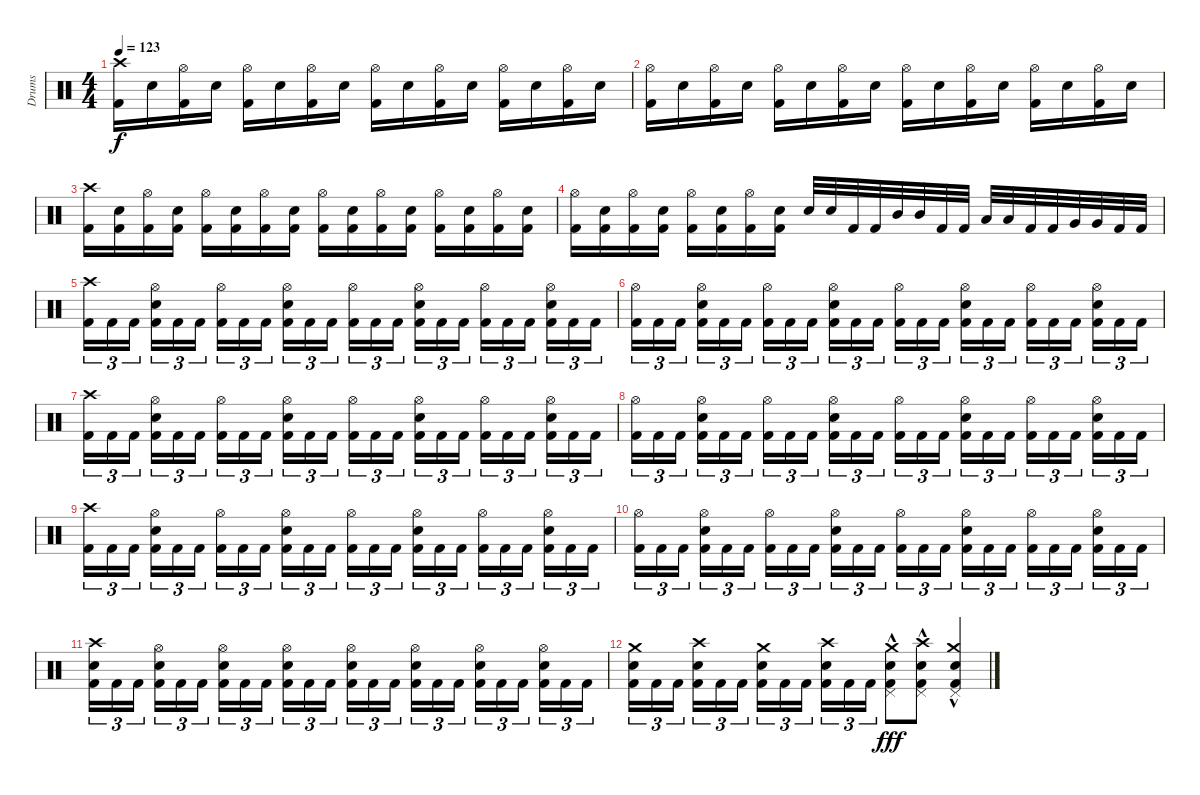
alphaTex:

\track ("Drums" "Drums") {instrument percussion}
\staff {score}
\articulation defaults
\ts (4 4)
\tempo 123
\clef neutral
\ks c
("Crash high (hit)" "Kick (hit) 2").16{dy f} "Snare (hit) 2".16 ("Hi-Hat (open)" "Kick (hit) 2").16 "Snare (hit) 2".16 ("Hi-Hat (open)" "Kick (hit) 2").16 "Snare (hit) 2".16 ("Hi-Hat (open)" "Kick (hit) 2").16 "Snare (hit) 2".16 ("Hi-Hat (open)" "Kick (hit) 2").16 "Snare (hit) 2".16 ("Hi-Hat (open)" "Kick (hit) 2").16 "Snare (hit) 2".16 ("Hi-Hat (open)" "Kick (hit) 2").16 "Snare (hit) 2".16 ("Hi-Hat (open)" "Kick (hit) 2").16 "Snare (hit) 2".16 |
("Hi-Hat (open)" "Kick (hit) 2").16 "Snare (hit) 2".16 ("Hi-Hat (open)" "Kick (hit) 2").16 "Snare (hit) 2".16 ("Hi-Hat (open)" "Kick (hit) 2").16 "Snare (hit) 2".16 ("Hi-Hat (open)" "Kick (hit) 2").16 "Snare (hit) 2".16 ("Hi-Hat (open)" "Kick (hit) 2").16 "Snare (hit) 2".16 ("Hi-Hat (open)" "Kick (hit) 2").16 "Snare (hit) 2".16 ("Hi-Hat (open)" "Kick (hit) 2").16 "Snare (hit) 2".16 ("Hi-Hat (open)" "Kick (hit) 2").16 "Snare (hit) 2".16 |
("Crash high (hit)" "Kick (hit) 2").16 ("Snare (hit) 2" "Kick (hit) 2").16 ("Hi-Hat (open)" "Kick (hit) 2").16 ("Snare (hit) 2" "Kick (hit) 2").16 ("Hi-Hat (open)" "Kick (hit) 2").16 ("Snare (hit) 2" "Kick (hit) 2").16 ("Hi-Hat (open)" "Kick (hit) 2").16 ("Snare (hit) 2" "Kick (hit) 2").16 ("Hi-Hat (open)" "Kick (hit) 2").16 ("Snare (hit) 2" "Kick (hit) 2").16 ("Hi-Hat (open)" "Kick (hit) 2").16 ("Snare (hit) 2" "Kick (hit) 2").16 ("Hi-Hat (open)" "Kick (hit) 2").16 ("Snare (hit) 2" "Kick (hit) 2").16 ("Hi-Hat (open)" "Kick (hit) 2").16 ("Snare (hit) 2" "Kick (hit) 2").16 |
("Hi-Hat (open)" "Kick (hit) 2").16 ("Snare (hit) 2" "Kick (hit) 2").16 ("Hi-Hat (open)" "Kick (hit) 2").16 ("Snare (hit) 2" "Kick (hit) 2").16 ("Hi-Hat (open)" "Kick (hit) 2").16 ("Snare (hit) 2" "Kick (hit) 2").16 ("Hi-Hat (open)" "Kick (hit) 2").16 ("Snare (hit) 2" "Kick (hit) 2").16 "Snare (hit) 2".32 "Snare (hit) 2".32 "Kick (hit) 2".32 "Kick (hit) 2".32 "Mid Tom (hit)".32 "Mid Tom (hit)".32 "Kick (hit) 2".32 "Kick (hit) 2".32 "Low Tom (hit)".32 "Low Tom (hit)".32 "Kick (hit) 2".32 "Kick (hit) 2".32 "Very Low Tom (hit)".32 "Very Low Tom (hit)".32 "Kick (hit) 2".32 "Kick (hit) 2".32 |
("Crash high (hit)" "Kick (hit) 2").16{tu (3 2)} "Kick (hit) 2".16{tu (3 2)} "Kick (hit) 2".16{tu (3 2) beam splitsecondary} ("Hi-Hat (open)" "Snare (hit) 2" "Kick (hit) 2").16{tu (3 2)} "Kick (hit) 2".16{tu (3 2)} "Kick (hit) 2".16{tu (3 2)} ("Hi-Hat (open)" "Kick (hit) 2").16{tu (3 2)} "Kick (hit) 2".16{tu (3 2)} "Kick (hit) 2".16{tu (3 2) beam splitsecondary} ("Hi-Hat (open)" "Snare (hit) 2" "Kick (hit) 2").16{tu (3 2)} "Kick (hit) 2".16{tu (3 2)} "Kick (hit) 2".16{tu (3 2)} ("Hi-Hat (open)" "Kick (hit) 2").16{tu (3 2)} "Kick (hit) 2".16{tu (3 2)} "Kick (hit) 2".16{tu (3 2) beam splitsecondary} ("Hi-Hat (open)" "Snare (hit) 2" "Kick (hit) 2").16{tu (3 2)} "Kick (hit) 2".16{tu (3 2)} "Kick (hit) 2".16{tu (3 2)} ("Hi-Hat (open)" "Kick (hit) 2").16{tu (3 2)} "Kick (hit) 2".16{tu (3 2)} "Kick (hit) 2".16{tu (3 2) beam splitsecondary} ("Hi-Hat (open)" "Snare (hit) 2" "Kick (hit) 2").16{tu (3 2)} "Kick (hit) 2".16{tu (3 2)} "Kick (hit) 2".16{tu (3 2)} |
("Hi-Hat (open)" "Kick (hit) 2").16{tu (3 2)} "Kick (hit) 2".16{tu (3 2)} "Kick (hit) 2".16{tu (3 2) beam splitsecondary} ("Hi-Hat (open)" "Snare (hit) 2" "Kick (hit) 2").16{tu (3 2)} "Kick (hit) 2".16{tu (3 2)} "Kick (hit) 2".16{tu (3 2)} ("Hi-Hat (open)" "Kick (hit) 2").16{tu (3 2)} "Kick (hit) 2".16{tu (3 2)} "Kick (hit) 2".16{tu (3 2) beam splitsecondary} ("Hi-Hat (open)" "Snare (hit) 2" "Kick (hit) 2").16{tu (3 2)} "Kick (hit) 2".16{tu (3 2)} "Kick (hit) 2".16{tu (3 2)} ("Hi-Hat (open)" "Kick (hit) 2").16{tu (3 2)} "Kick (hit) 2".16{tu (3 2)} "Kick (hit) 2".16{tu (3 2) beam splitsecondary} ("Hi-Hat (open)" "Snare (hit) 2" "Kick (hit) 2").16{tu (3 2)} "Kick (hit) 2".16{tu (3 2)} "Kick (hit) 2".16{tu (3 2)} ("Hi-Hat (open)" "Kick (hit) 2").16{tu (3 2)} "Kick (hit) 2".16{tu (3 2)} "Kick (hit) 2".16{tu (3 2) beam splitsecondary} ("Hi-Hat (open)" "Snare (hit) 2" "Kick (hit) 2").16{tu (3 2)} "Kick (hit) 2".16{tu (3 2)} "Kick (hit) 2".16{tu (3 2)} |
("Crash high (hit)" "Kick (hit) 2").16{tu (3 2)} "Kick (hit) 2".16{tu (3 2)} "Kick (hit) 2".16{tu (3 2) beam splitsecondary} ("Hi-Hat (open)" "Snare (hit) 2" "Kick (hit) 2").16{tu (3 2)} "Kick (hit) 2".16{tu (3 2)} "Kick (hit) 2".16{tu (3 2)} ("Hi-Hat (open)" "Kick (hit) 2").16{tu (3 2)} "Kick (hit) 2".16{tu (3 2)} "Kick (hit) 2".16{tu (3 2) beam splitsecondary} ("Hi-Hat (open)" "Snare (hit) 2" "Kick (hit) 2").16{tu (3 2)} "Kick (hit) 2".16{tu (3 2)} "Kick (hit) 2".16{tu (3 2)} ("Hi-Hat (open)" "Kick (hit) 2").16{tu (3 2)} "Kick (hit) 2".16{tu (3 2)} "Kick (hit) 2".16{tu (3 2) beam splitsecondary} ("Hi-Hat (open)" "Snare (hit) 2" "Kick (hit) 2").16{tu (3 2)} "Kick (hit) 2".16{tu (3 2)} "Kick (hit) 2".16{tu (3 2)} ("Hi-Hat (open)" "Kick (hit) 2").16{tu (3 2)} "Kick (hit) 2".16{tu (3 2)} "Kick (hit) 2".16{tu (3 2) beam splitsecondary} ("Hi-Hat (open)" "Snare (hit) 2" "Kick (hit) 2").16{tu (3 2)} "Kick (hit) 2".16{tu (3 2)} "Kick (hit) 2".16{tu (3 2)} |
("Hi-Hat (open)" "Kick (hit) 2").16{tu (3 2)} "Kick (hit) 2".16{tu (3 2)} "Kick (hit) 2".16{tu (3 2) beam splitsecondary} ("Hi-Hat (open)" "Snare (hit) 2" "Kick (hit) 2").16{tu (3 2)} "Kick (hit) 2".16{tu (3 2)} "Kick (hit) 2".16{tu (3 2)} ("Hi-Hat (open)" "Kick (hit) 2").16{tu (3 2)} "Kick (hit) 2".16{tu (3 2)} "Kick (hit) 2".16{tu (3 2) beam splitsecondary} ("Hi-Hat (open)" "Snare (hit) 2" "Kick (hit) 2").16{tu (3 2)} "Kick (hit) 2".16{tu (3 2)} "Kick (hit) 2".16{tu (3 2)} ("Hi-Hat (open)" "Kick (hit) 2").16{tu (3 2)} "Kick (hit) 2".16{tu (3 2)} "Kick (hit) 2".16{tu (3 2) beam splitsecondary} ("Hi-Hat (open)" "Snare (hit) 2" "Kick (hit) 2").16{tu (3 2)} "Kick (hit) 2".16{tu (3 2)} "Kick (hit) 2".16{tu (3 2)} ("Hi-Hat (open)" "Kick (hit) 2").16{tu (3 2)} "Kick (hit) 2".16{tu (3 2)} "Kick (hit) 2".16{tu (3 2) beam splitsecondary} ("Hi-Hat (open)" "Snare (hit) 2" "Kick (hit) 2").16{tu (3 2)} "Kick (hit) 2".16{tu (3 2)} "Kick (hit) 2".16{tu (3 2)} |
("Crash high (hit)" "Kick (hit) 2").16{tu (3 2)} "Kick (hit) 2".16{tu (3 2)} "Kick (hit) 2".16{tu (3 2) beam splitsecondary} ("Hi-Hat (open)" "Snare (hit) 2" "Kick (hit) 2").16{tu (3 2)} "Kick (hit) 2".16{tu (3 2)} "Kick (hit) 2".16{tu (3 2)} ("Hi-Hat (open)" "Kick (hit) 2").16{tu (3 2)} "Kick (hit) 2".16{tu (3 2)} "Kick (hit) 2".16{tu (3 2) beam splitsecondary} ("Hi-Hat (open)" "Snare (hit) 2" "Kick (hit) 2").16{tu (3 2)} "Kick (hit) 2".16{tu (3 2)} "Kick (hit) 2".16{tu (3 2)} ("Hi-Hat (open)" "Kick (hit) 2").16{tu (3 2)} "Kick (hit) 2".16{tu (3 2)} "Kick (hit) 2".16{tu (3 2) beam splitsecondary} ("Hi-Hat (open)" "Snare (hit) 2" "Kick (hit) 2").16{tu (3 2)} "Kick (hit) 2".16{tu (3 2)} "Kick (hit) 2".16{tu (3 2)} ("Hi-Hat (open)" "Kick (hit) 2").16{tu (3 2)} "Kick (hit) 2".16{tu (3 2)} "Kick (hit) 2".16{tu (3 2) beam splitsecondary} ("Hi-Hat (open)" "Snare (hit) 2" "Kick (hit) 2").16{tu (3 2)} "Kick (hit) 2".16{tu (3 2)} "Kick (hit) 2".16{tu (3 2)} |
("Hi-Hat (open)" "Kick (hit) 2").16{tu (3 2)} "Kick (hit) 2".16{tu (3 2)} "Kick (hit) 2".16{tu (3 2) beam splitsecondary} ("Hi-Hat (open)" "Snare (hit) 2" "Kick (hit) 2").16{tu (3 2)} "Kick (hit) 2".16{tu (3 2)} "Kick (hit) 2".16{tu (3 2)} ("Hi-Hat (open)" "Kick (hit) 2").16{tu (3 2)} "Kick (hit) 2".16{tu (3 2)} "Kick (hit) 2".16{tu (3 2) beam splitsecondary} ("Hi-Hat (open)" "Snare (hit) 2" "Kick (hit) 2").16{tu (3 2)} "Kick (hit) 2".16{tu (3 2)} "Kick (hit) 2".16{tu (3 2)} ("Hi-Hat (open)" "Kick (hit) 2").16{tu (3 2)} "Kick (hit) 2".16{tu (3 2)} "Kick (hit) 2".16{tu (3 2) beam splitsecondary} ("Hi-Hat (open)" "Snare (hit) 2" "Kick (hit) 2").16{tu (3 2)} "Kick (hit) 2".16{tu (3 2)} "Kick (hit) 2".16{tu (3 2)} ("Hi-Hat (open)" "Kick (hit) 2").16{tu (3 2)} "Kick (hit) 2".16{tu (3 2)} "Kick (hit) 2".16{tu (3 2) beam splitsecondary} ("Hi-Hat (open)" "Snare (hit) 2" "Kick (hit) 2").16{tu (3 2)} "Kick (hit) 2".16{tu (3 2)} "Kick (hit) 2".16{tu (3 2)} |
("Crash high (hit)" "Snare (hit) 2" "Kick (hit) 2").16{tu (3 2)} "Kick (hit) 2".16{tu (3 2)} "Kick (hit) 2".16{tu (3 2) beam splitsecondary} ("Hi-Hat (open)" "Snare (hit) 2" "Kick (hit) 2").16{tu (3 2)} "Kick (hit) 2".16{tu (3 2)} "Kick (hit) 2".16{tu (3 2)} ("Hi-Hat (open)" "Snare (hit) 2" "Kick (hit) 2").16{tu (3 2)} "Kick (hit) 2".16{tu (3 2)} "Kick (hit) 2".16{tu (3 2) beam splitsecondary} ("Hi-Hat (open)" "Snare (hit) 2" "Kick (hit) 2").16{tu (3 2)} "Kick (hit) 2".16{tu (3 2)} "Kick (hit) 2".16{tu (3 2)} ("Hi-Hat (open)" "Snare (hit) 2" "Kick (hit) 2").16{tu (3 2)} "Kick (hit) 2".16{tu (3 2)} "Kick (hit) 2".16{tu (3 2) beam splitsecondary} ("Hi-Hat (open)" "Snare (hit) 2" "Kick (hit) 2").16{tu (3 2)} "Kick (hit) 2".16{tu (3 2)} "Kick (hit) 2".16{tu (3 2)} ("Hi-Hat (open)" "Snare (hit) 2" "Kick (hit) 2").16{tu (3 2)} "Kick (hit) 2".16{tu (3 2)} "Kick (hit) 2".16{tu (3 2) beam splitsecondary} ("Hi-Hat (open)" "Snare (hit) 2" "Kick (hit) 2").16{tu (3 2)} "Kick (hit) 2".16{tu (3 2)} "Kick (hit) 2".16{tu (3 2)} |
("Crash medium (hit)" "Snare (hit) 2" "Kick (hit) 2").16{tu (3 2)} "Kick (hit) 2".16{tu (3 2)} "Kick (hit) 2".16{tu (3 2) beam splitsecondary} ("Crash high (hit)" "Snare (hit) 2" "Kick (hit) 2").16{tu (3 2)} "Kick (hit) 2".16{tu (3 2)} "Kick (hit) 2".16{tu (3 2)} ("Crash medium (hit)" "Snare (hit) 2" "Kick (hit) 2").16{tu (3 2)} "Kick (hit) 2".16{tu (3 2)} "Kick (hit) 2".16{tu (3 2) beam splitsecondary} ("Crash high (hit)" "Snare (hit) 2" "Kick (hit) 2").16{tu (3 2)} "Kick (hit) 2".16{tu (3 2)} "Kick (hit) 2".16{tu (3 2)} ("Crash medium (hit)"{hac} "Pedal Hi-Hat (hit)" "Snare (hit) 2"{hac} "Kick (hit) 2").8{dy fff} ("Crash high (hit)"{hac} "Pedal Hi-Hat (hit)" "Snare (hit) 2"{hac} "Kick (hit) 2").8 ("Crash medium (hit)"{hac} "Pedal Hi-Hat (hit)" "Snare (hit) 2"{hac} "Kick (hit) 2").4
